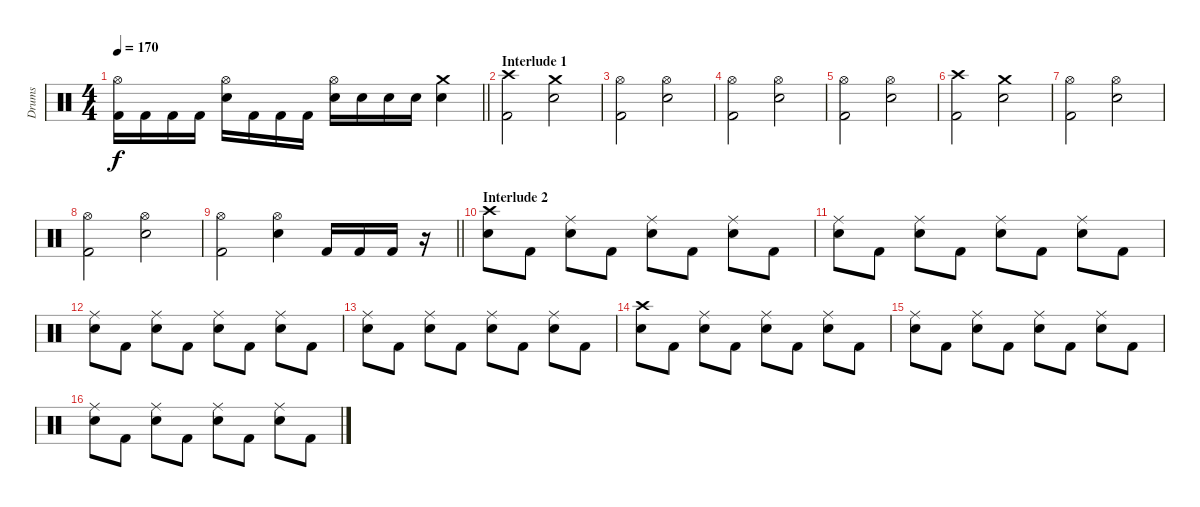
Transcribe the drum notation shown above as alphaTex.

\track ("Drums" "Drums") {instrument percussion}
\staff {score}
\articulation defaults
\ts (4 4)
\tempo 170
\clef neutral
\barLineRight lightlight
\ks c
("Hi-Hat (open)" "Kick (hit) 2").16{dy f} "Kick (hit) 2".16 "Kick (hit) 2".16 "Kick (hit) 2".16 ("Hi-Hat (open)" "Snare (hit) 2").16 "Kick (hit) 2".16 "Kick (hit) 2".16 "Kick (hit) 2".16 ("Hi-Hat (open)" "Snare (hit) 2").16 "Snare (hit) 2".16 "Snare (hit) 2".16 "Snare (hit) 2".16 ("Crash medium (hit)" "Snare (hit) 2").4 |
\section ("" "Interlude 1")
("Crash high (hit)" "Kick (hit) 2").2 ("Crash medium (hit)" "Snare (hit) 2").2 |
("Hi-Hat (open)" "Kick (hit) 2").2 ("Hi-Hat (open)" "Snare (hit) 2").2 |
("Hi-Hat (open)" "Kick (hit) 2").2 ("Hi-Hat (open)" "Snare (hit) 2").2 |
("Hi-Hat (open)" "Kick (hit) 2").2 ("Hi-Hat (open)" "Snare (hit) 2").2 |
("Crash high (hit)" "Kick (hit) 2").2 ("Crash medium (hit)" "Snare (hit) 2").2 |
("Hi-Hat (open)" "Kick (hit) 2").2 ("Hi-Hat (open)" "Snare (hit) 2").2 |
("Hi-Hat (open)" "Kick (hit) 2").2 ("Hi-Hat (open)" "Snare (hit) 2").2 |
\barLineRight lightlight
("Hi-Hat (open)" "Kick (hit) 2").2 ("Hi-Hat (open)" "Snare (hit) 2").4 "Kick (hit) 2".16 "Kick (hit) 2".16 "Kick (hit) 2".16 r.16 |
\section ("" "Interlude 2")
("Crash high (hit)" "Electric Snare (hit)").8 "Kick (hit) 2".8 ("Ride (middle)" "Electric Snare (hit)").8 "Kick (hit) 2".8 ("Ride (middle)" "Electric Snare (hit)").8 "Kick (hit) 2".8 ("Ride (middle)" "Electric Snare (hit)").8 "Kick (hit) 2".8 |
("Ride (middle)" "Electric Snare (hit)").8 "Kick (hit) 2".8 ("Ride (middle)" "Electric Snare (hit)").8 "Kick (hit) 2".8 ("Ride (middle)" "Electric Snare (hit)").8 "Kick (hit) 2".8 ("Ride (middle)" "Electric Snare (hit)").8 "Kick (hit) 2".8 |
("Ride (middle)" "Electric Snare (hit)").8 "Kick (hit) 2".8 ("Ride (middle)" "Electric Snare (hit)").8 "Kick (hit) 2".8 ("Ride (middle)" "Electric Snare (hit)").8 "Kick (hit) 2".8 ("Ride (middle)" "Electric Snare (hit)").8 "Kick (hit) 2".8 |
("Ride (middle)" "Electric Snare (hit)").8 "Kick (hit) 2".8 ("Ride (middle)" "Electric Snare (hit)").8 "Kick (hit) 2".8 ("Ride (middle)" "Electric Snare (hit)").8 "Kick (hit) 2".8 ("Ride (middle)" "Electric Snare (hit)").8 "Kick (hit) 2".8 |
("Crash high (hit)" "Electric Snare (hit)").8 "Kick (hit) 2".8 ("Ride (middle)" "Electric Snare (hit)").8 "Kick (hit) 2".8 ("Ride (middle)" "Electric Snare (hit)").8 "Kick (hit) 2".8 ("Ride (middle)" "Electric Snare (hit)").8 "Kick (hit) 2".8 |
("Ride (middle)" "Electric Snare (hit)").8 "Kick (hit) 2".8 ("Ride (middle)" "Electric Snare (hit)").8 "Kick (hit) 2".8 ("Ride (middle)" "Electric Snare (hit)").8 "Kick (hit) 2".8 ("Ride (middle)" "Electric Snare (hit)").8 "Kick (hit) 2".8 |
("Ride (middle)" "Electric Snare (hit)").8 "Kick (hit) 2".8 ("Ride (middle)" "Electric Snare (hit)").8 "Kick (hit) 2".8 ("Ride (middle)" "Electric Snare (hit)").8 "Kick (hit) 2".8 ("Ride (middle)" "Electric Snare (hit)").8 "Kick (hit) 2".8
